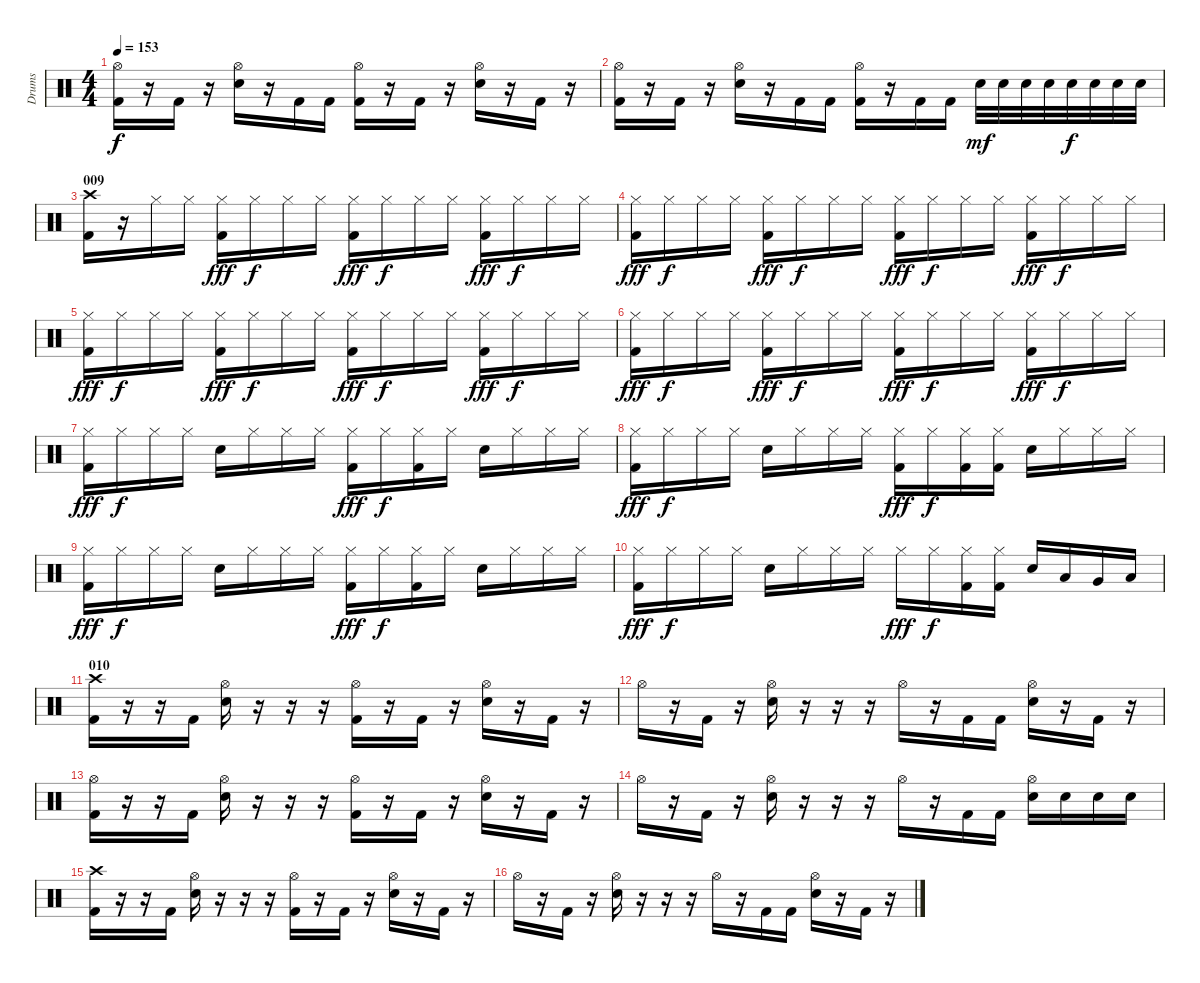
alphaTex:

\track ("Drums" "Drums") {instrument percussion}
\staff {score}
\articulation defaults
\ts (4 4)
\tempo 153
\clef neutral
\ks c
("Kick (hit) 2" "Hi-Hat (open)").16{dy f} r.16 "Kick (hit) 2".16 r.16 ("Electric Snare (hit)" "Hi-Hat (open)").16 r.16 "Kick (hit) 2".16 "Kick (hit) 2".16 ("Kick (hit) 2" "Hi-Hat (open)").16 r.16 "Kick (hit) 2".16 r.16 ("Electric Snare (hit)" "Hi-Hat (open)").16 r.16 "Kick (hit) 2".16 r.16 |
("Kick (hit) 2" "Hi-Hat (open)").16 r.16 "Kick (hit) 2".16 r.16 ("Electric Snare (hit)" "Hi-Hat (open)").16 r.16 "Kick (hit) 2".16 "Kick (hit) 2".16 ("Kick (hit) 2" "Hi-Hat (open)").16 r.16 "Kick (hit) 2".16 "Kick (hit) 2".16 "Electric Snare (hit)".32{dy mf} "Electric Snare (hit)".32 "Electric Snare (hit)".32 "Electric Snare (hit)".32 "Electric Snare (hit)".32{dy f} "Electric Snare (hit)".32 "Electric Snare (hit)".32 "Electric Snare (hit)".32 |
\section ("" "009")
("Crash high (hit)" "Kick (hit) 2").16 r.16 "Hi-Hat (closed)".16 "Hi-Hat (closed)".16 ("Hi-Hat (closed)" "Kick (hit) 2").16{dy fff} "Hi-Hat (closed)".16{dy f} "Hi-Hat (closed)".16 "Hi-Hat (closed)".16 ("Hi-Hat (closed)" "Kick (hit) 2").16{dy fff} "Hi-Hat (closed)".16{dy f} "Hi-Hat (closed)".16 "Hi-Hat (closed)".16 ("Hi-Hat (closed)" "Kick (hit) 2").16{dy fff} "Hi-Hat (closed)".16{dy f} "Hi-Hat (closed)".16 "Hi-Hat (closed)".16 |
("Hi-Hat (closed)" "Kick (hit) 2").16{dy fff} "Hi-Hat (closed)".16{dy f} "Hi-Hat (closed)".16 "Hi-Hat (closed)".16 ("Hi-Hat (closed)" "Kick (hit) 2").16{dy fff} "Hi-Hat (closed)".16{dy f} "Hi-Hat (closed)".16 "Hi-Hat (closed)".16 ("Hi-Hat (closed)" "Kick (hit) 2").16{dy fff} "Hi-Hat (closed)".16{dy f} "Hi-Hat (closed)".16 "Hi-Hat (closed)".16 ("Hi-Hat (closed)" "Kick (hit) 2").16{dy fff} "Hi-Hat (closed)".16{dy f} "Hi-Hat (closed)".16 "Hi-Hat (closed)".16 |
("Hi-Hat (closed)" "Kick (hit) 2").16{dy fff} "Hi-Hat (closed)".16{dy f} "Hi-Hat (closed)".16 "Hi-Hat (closed)".16 ("Hi-Hat (closed)" "Kick (hit) 2").16{dy fff} "Hi-Hat (closed)".16{dy f} "Hi-Hat (closed)".16 "Hi-Hat (closed)".16 ("Hi-Hat (closed)" "Kick (hit) 2").16{dy fff} "Hi-Hat (closed)".16{dy f} "Hi-Hat (closed)".16 "Hi-Hat (closed)".16 ("Hi-Hat (closed)" "Kick (hit) 2").16{dy fff} "Hi-Hat (closed)".16{dy f} "Hi-Hat (closed)".16 "Hi-Hat (closed)".16 |
("Hi-Hat (closed)" "Kick (hit) 2").16{dy fff} "Hi-Hat (closed)".16{dy f} "Hi-Hat (closed)".16 "Hi-Hat (closed)".16 ("Hi-Hat (closed)" "Kick (hit) 2").16{dy fff} "Hi-Hat (closed)".16{dy f} "Hi-Hat (closed)".16 "Hi-Hat (closed)".16 ("Hi-Hat (closed)" "Kick (hit) 2").16{dy fff} "Hi-Hat (closed)".16{dy f} "Hi-Hat (closed)".16 "Hi-Hat (closed)".16 ("Hi-Hat (closed)" "Kick (hit) 2").16{dy fff} "Hi-Hat (closed)".16{dy f} "Hi-Hat (closed)".16 "Hi-Hat (closed)".16 |
("Hi-Hat (closed)" "Kick (hit) 2").16{dy fff} "Hi-Hat (closed)".16{dy f} "Hi-Hat (closed)".16 "Hi-Hat (closed)".16 "Electric Snare (hit)".16 "Hi-Hat (closed)".16 "Hi-Hat (closed)".16 "Hi-Hat (closed)".16 ("Hi-Hat (closed)" "Kick (hit) 2").16{dy fff} "Hi-Hat (closed)".16{dy f} ("Hi-Hat (closed)" "Kick (hit) 2").16 "Hi-Hat (closed)".16 "Electric Snare (hit)".16 "Hi-Hat (closed)".16 "Hi-Hat (closed)".16 "Hi-Hat (closed)".16 |
("Hi-Hat (closed)" "Kick (hit) 2").16{dy fff} "Hi-Hat (closed)".16{dy f} "Hi-Hat (closed)".16 "Hi-Hat (closed)".16 "Electric Snare (hit)".16 "Hi-Hat (closed)".16 "Hi-Hat (closed)".16 "Hi-Hat (closed)".16 ("Hi-Hat (closed)" "Kick (hit) 2").16{dy fff} "Hi-Hat (closed)".16{dy f} ("Hi-Hat (closed)" "Kick (hit) 2").16 ("Hi-Hat (closed)" "Kick (hit) 2").16 "Electric Snare (hit)".16 "Hi-Hat (closed)".16 "Hi-Hat (closed)".16 "Hi-Hat (closed)".16 |
("Hi-Hat (closed)" "Kick (hit) 2").16{dy fff} "Hi-Hat (closed)".16{dy f} "Hi-Hat (closed)".16 "Hi-Hat (closed)".16 "Electric Snare (hit)".16 "Hi-Hat (closed)".16 "Hi-Hat (closed)".16 "Hi-Hat (closed)".16 ("Hi-Hat (closed)" "Kick (hit) 2").16{dy fff} "Hi-Hat (closed)".16{dy f} ("Hi-Hat (closed)" "Kick (hit) 2").16 "Hi-Hat (closed)".16 "Electric Snare (hit)".16 "Hi-Hat (closed)".16 "Hi-Hat (closed)".16 "Hi-Hat (closed)".16 |
("Hi-Hat (closed)" "Kick (hit) 2").16{dy fff} "Hi-Hat (closed)".16{dy f} "Hi-Hat (closed)".16 "Hi-Hat (closed)".16 "Electric Snare (hit)".16 "Hi-Hat (closed)".16 "Hi-Hat (closed)".16 "Hi-Hat (closed)".16 "Hi-Hat (closed)".16{dy fff} "Hi-Hat (closed)".16{dy f} ("Hi-Hat (closed)" "Kick (hit) 2").16 ("Hi-Hat (closed)" "Kick (hit) 2").16 "Electric Snare (hit)".16 "Low Tom (hit)".16 "Very Low Tom (hit)".16 "Low Floor Tom (hit)".16 |
\section ("" "010")
("Crash high (hit)" "Kick (hit) 2").16 r.16 r.16 "Kick (hit) 2".16 ("Hi-Hat (open)" "Electric Snare (hit)").16 r.16 r.16 r.16 ("Hi-Hat (open)" "Kick (hit) 2").16 r.16 "Kick (hit) 2".16 r.16 ("Hi-Hat (open)" "Electric Snare (hit)").16 r.16 "Kick (hit) 2".16 r.16 |
"Hi-Hat (open)".16 r.16 "Kick (hit) 2".16 r.16 ("Hi-Hat (open)" "Electric Snare (hit)").16 r.16 r.16 r.16 "Hi-Hat (open)".16 r.16 "Kick (hit) 2".16 "Kick (hit) 2".16 ("Hi-Hat (open)" "Electric Snare (hit)").16 r.16 "Kick (hit) 2".16 r.16 |
("Hi-Hat (open)" "Kick (hit) 2").16 r.16 r.16 "Kick (hit) 2".16 ("Hi-Hat (open)" "Electric Snare (hit)").16 r.16 r.16 r.16 ("Hi-Hat (open)" "Kick (hit) 2").16 r.16 "Kick (hit) 2".16 r.16 ("Hi-Hat (open)" "Electric Snare (hit)").16 r.16 "Kick (hit) 2".16 r.16 |
"Hi-Hat (open)".16 r.16 "Kick (hit) 2".16 r.16 ("Hi-Hat (open)" "Electric Snare (hit)").16 r.16 r.16 r.16 "Hi-Hat (open)".16 r.16 "Kick (hit) 2".16 "Kick (hit) 2".16 ("Hi-Hat (open)" "Electric Snare (hit)").16 "Electric Snare (hit)".16 "Electric Snare (hit)".16 "Electric Snare (hit)".16 |
("Crash high (hit)" "Kick (hit) 2").16 r.16 r.16 "Kick (hit) 2".16 ("Hi-Hat (open)" "Electric Snare (hit)").16 r.16 r.16 r.16 ("Hi-Hat (open)" "Kick (hit) 2").16 r.16 "Kick (hit) 2".16 r.16 ("Hi-Hat (open)" "Electric Snare (hit)").16 r.16 "Kick (hit) 2".16 r.16 |
"Hi-Hat (open)".16 r.16 "Kick (hit) 2".16 r.16 ("Hi-Hat (open)" "Electric Snare (hit)").16 r.16 r.16 r.16 "Hi-Hat (open)".16 r.16 "Kick (hit) 2".16 "Kick (hit) 2".16 ("Hi-Hat (open)" "Electric Snare (hit)").16 r.16 "Kick (hit) 2".16 r.16
